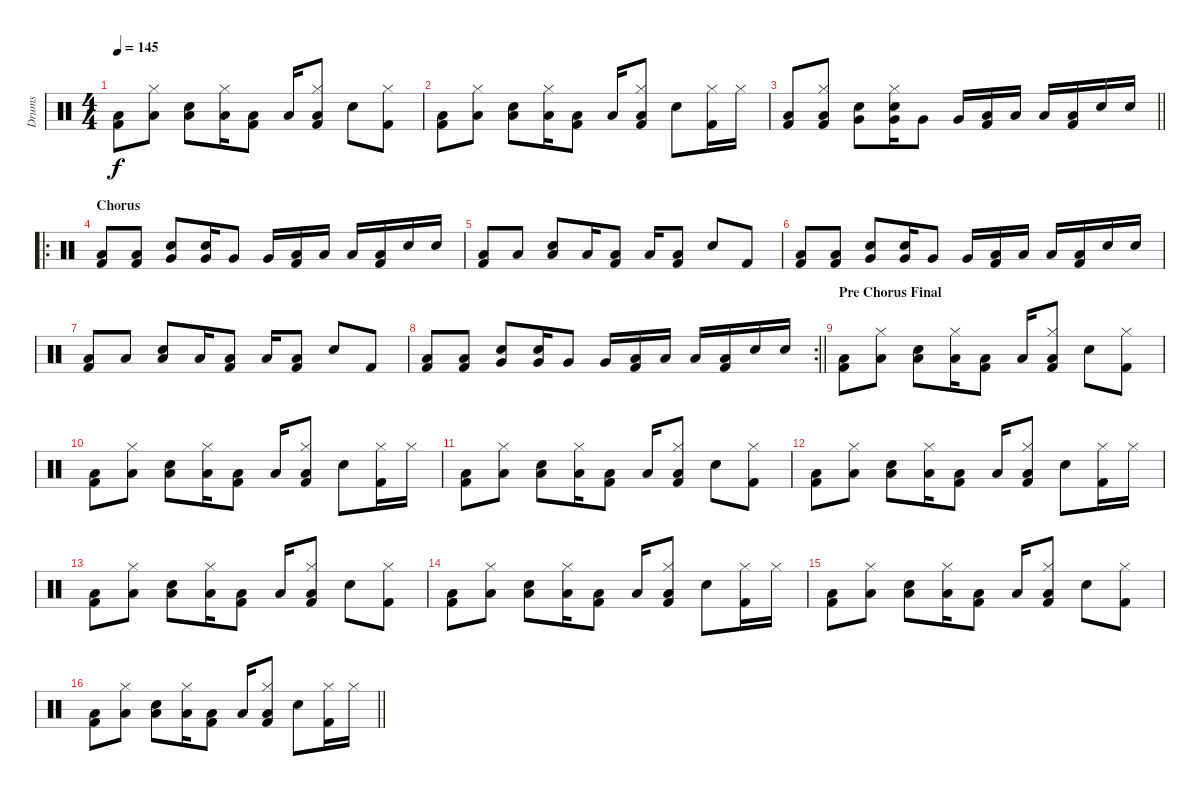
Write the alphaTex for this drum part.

\track ("Drums" "Drums") {instrument percussion}
\staff {score}
\articulation defaults
\ts (4 4)
\tempo 145
\clef neutral
\ks c
("Low Tom (hit)" "Kick (hit) 2").8{dy f} ("Low Tom (hit)" "Hi-Hat (closed)").8 ("Low Tom (hit)" "Snare (hit) 2").8 ("Low Floor Tom (hit)" "Hi-Hat (closed)").16 ("Low Floor Tom (hit)" "Kick (hit) 2").8 "Low Floor Tom (hit)".16 ("Low Floor Tom (hit)" "Kick (hit) 2" "Hi-Hat (closed)").8 "Snare (hit) 2".8 ("Kick (hit) 2" "Hi-Hat (closed)").8 |
("Low Tom (hit)" "Kick (hit) 2").8 ("Low Tom (hit)" "Hi-Hat (closed)").8 ("Low Tom (hit)" "Snare (hit) 2").8 ("Low Floor Tom (hit)" "Hi-Hat (closed)").16 ("Low Floor Tom (hit)" "Kick (hit) 2").8 "Low Floor Tom (hit)".16 ("Low Floor Tom (hit)" "Kick (hit) 2" "Hi-Hat (closed)").8 "Snare (hit) 2".8 ("Kick (hit) 2" "Hi-Hat (closed)").16 "Hi-Hat (closed)".16 |
\barLineRight lightlight
("Low Floor Tom (hit)" "Kick (hit) 2").8 ("Low Floor Tom (hit)" "Kick (hit) 2" "Hi-Hat (closed)").8 ("Snare (hit) 2" "Very Low Tom (hit)").8 ("Snare (hit) 2" "Very Low Tom (hit)" "Hi-Hat (closed)").16 "Very Low Tom (hit)".8 "Very Low Tom (hit)".16 ("Low Tom (hit)" "Kick (hit) 2").16 "Low Tom (hit)".16 "Low Floor Tom (hit)".16 ("Low Floor Tom (hit)" "Kick (hit) 2").16 "Snare (hit) 2".16 "Snare (hit) 2".16 |
\ro
\section ("" "Chorus")
("Low Floor Tom (hit)" "Kick (hit) 2").8 ("Low Floor Tom (hit)" "Kick (hit) 2").8 ("Snare (hit) 2" "Very Low Tom (hit)").8 ("Snare (hit) 2" "Very Low Tom (hit)").16 "Very Low Tom (hit)".8 "Very Low Tom (hit)".16 ("Low Tom (hit)" "Kick (hit) 2").16 "Low Tom (hit)".16 "Low Floor Tom (hit)".16 ("Low Floor Tom (hit)" "Kick (hit) 2").16 "Snare (hit) 2".16 "Snare (hit) 2".16 |
("Low Tom (hit)" "Kick (hit) 2").8 "Low Tom (hit)".8 ("Low Tom (hit)" "Snare (hit) 2").8 "Low Floor Tom (hit)".16 ("Low Floor Tom (hit)" "Kick (hit) 2").8 "Low Floor Tom (hit)".16 ("Low Floor Tom (hit)" "Kick (hit) 2").8 "Snare (hit) 2".8 "Kick (hit) 2".8 |
("Low Floor Tom (hit)" "Kick (hit) 2").8 ("Low Floor Tom (hit)" "Kick (hit) 2").8 ("Snare (hit) 2" "Very Low Tom (hit)").8 ("Snare (hit) 2" "Very Low Tom (hit)").16 "Very Low Tom (hit)".8 "Very Low Tom (hit)".16 ("Low Tom (hit)" "Kick (hit) 2").16 "Low Tom (hit)".16 "Low Floor Tom (hit)".16 ("Low Floor Tom (hit)" "Kick (hit) 2").16 "Snare (hit) 2".16 "Snare (hit) 2".16 |
("Low Tom (hit)" "Kick (hit) 2").8 "Low Tom (hit)".8 ("Low Tom (hit)" "Snare (hit) 2").8 "Low Floor Tom (hit)".16 ("Low Floor Tom (hit)" "Kick (hit) 2").8 "Low Floor Tom (hit)".16 ("Low Floor Tom (hit)" "Kick (hit) 2").8 "Snare (hit) 2".8 "Kick (hit) 2".8 |
\rc 2
\barLineRight lightlight
("Low Floor Tom (hit)" "Kick (hit) 2").8 ("Low Floor Tom (hit)" "Kick (hit) 2").8 ("Snare (hit) 2" "Very Low Tom (hit)").8 ("Snare (hit) 2" "Very Low Tom (hit)").16 "Very Low Tom (hit)".8 "Very Low Tom (hit)".16 ("Low Tom (hit)" "Kick (hit) 2").16 "Low Tom (hit)".16 "Low Floor Tom (hit)".16 ("Low Floor Tom (hit)" "Kick (hit) 2").16 "Snare (hit) 2".16 "Snare (hit) 2".16 |
\section ("" "Pre Chorus Final")
("Low Tom (hit)" "Kick (hit) 2").8 ("Low Tom (hit)" "Hi-Hat (closed)").8 ("Low Tom (hit)" "Snare (hit) 2").8 ("Low Floor Tom (hit)" "Hi-Hat (closed)").16 ("Low Floor Tom (hit)" "Kick (hit) 2").8 "Low Floor Tom (hit)".16 ("Low Floor Tom (hit)" "Kick (hit) 2" "Hi-Hat (closed)").8 "Snare (hit) 2".8 ("Kick (hit) 2" "Hi-Hat (closed)").8 |
("Low Tom (hit)" "Kick (hit) 2").8 ("Low Tom (hit)" "Hi-Hat (closed)").8 ("Low Tom (hit)" "Snare (hit) 2").8 ("Low Floor Tom (hit)" "Hi-Hat (closed)").16 ("Low Floor Tom (hit)" "Kick (hit) 2").8 "Low Floor Tom (hit)".16 ("Low Floor Tom (hit)" "Kick (hit) 2" "Hi-Hat (closed)").8 "Snare (hit) 2".8 ("Kick (hit) 2" "Hi-Hat (closed)").16 "Hi-Hat (closed)".16 |
("Low Tom (hit)" "Kick (hit) 2").8 ("Low Tom (hit)" "Hi-Hat (closed)").8 ("Low Tom (hit)" "Snare (hit) 2").8 ("Low Floor Tom (hit)" "Hi-Hat (closed)").16 ("Low Floor Tom (hit)" "Kick (hit) 2").8 "Low Floor Tom (hit)".16 ("Low Floor Tom (hit)" "Kick (hit) 2" "Hi-Hat (closed)").8 "Snare (hit) 2".8 ("Kick (hit) 2" "Hi-Hat (closed)").8 |
("Low Tom (hit)" "Kick (hit) 2").8 ("Low Tom (hit)" "Hi-Hat (closed)").8 ("Low Tom (hit)" "Snare (hit) 2").8 ("Low Floor Tom (hit)" "Hi-Hat (closed)").16 ("Low Floor Tom (hit)" "Kick (hit) 2").8 "Low Floor Tom (hit)".16 ("Low Floor Tom (hit)" "Kick (hit) 2" "Hi-Hat (closed)").8 "Snare (hit) 2".8 ("Kick (hit) 2" "Hi-Hat (closed)").16 "Hi-Hat (closed)".16 |
("Low Tom (hit)" "Kick (hit) 2").8 ("Low Tom (hit)" "Hi-Hat (closed)").8 ("Low Tom (hit)" "Snare (hit) 2").8 ("Low Floor Tom (hit)" "Hi-Hat (closed)").16 ("Low Floor Tom (hit)" "Kick (hit) 2").8 "Low Floor Tom (hit)".16 ("Low Floor Tom (hit)" "Kick (hit) 2" "Hi-Hat (closed)").8 "Snare (hit) 2".8 ("Kick (hit) 2" "Hi-Hat (closed)").8 |
("Low Tom (hit)" "Kick (hit) 2").8 ("Low Tom (hit)" "Hi-Hat (closed)").8 ("Low Tom (hit)" "Snare (hit) 2").8 ("Low Floor Tom (hit)" "Hi-Hat (closed)").16 ("Low Floor Tom (hit)" "Kick (hit) 2").8 "Low Floor Tom (hit)".16 ("Low Floor Tom (hit)" "Kick (hit) 2" "Hi-Hat (closed)").8 "Snare (hit) 2".8 ("Kick (hit) 2" "Hi-Hat (closed)").16 "Hi-Hat (closed)".16 |
("Low Tom (hit)" "Kick (hit) 2").8 ("Low Tom (hit)" "Hi-Hat (closed)").8 ("Low Tom (hit)" "Snare (hit) 2").8 ("Low Floor Tom (hit)" "Hi-Hat (closed)").16 ("Low Floor Tom (hit)" "Kick (hit) 2").8 "Low Floor Tom (hit)".16 ("Low Floor Tom (hit)" "Kick (hit) 2" "Hi-Hat (closed)").8 "Snare (hit) 2".8 ("Kick (hit) 2" "Hi-Hat (closed)").8 |
\barLineRight lightlight
("Low Tom (hit)" "Kick (hit) 2").8 ("Low Tom (hit)" "Hi-Hat (closed)").8 ("Low Tom (hit)" "Snare (hit) 2").8 ("Low Floor Tom (hit)" "Hi-Hat (closed)").16 ("Low Floor Tom (hit)" "Kick (hit) 2").8 "Low Floor Tom (hit)".16 ("Low Floor Tom (hit)" "Kick (hit) 2" "Hi-Hat (closed)").8 "Snare (hit) 2".8 ("Kick (hit) 2" "Hi-Hat (closed)").16 "Hi-Hat (closed)".16
